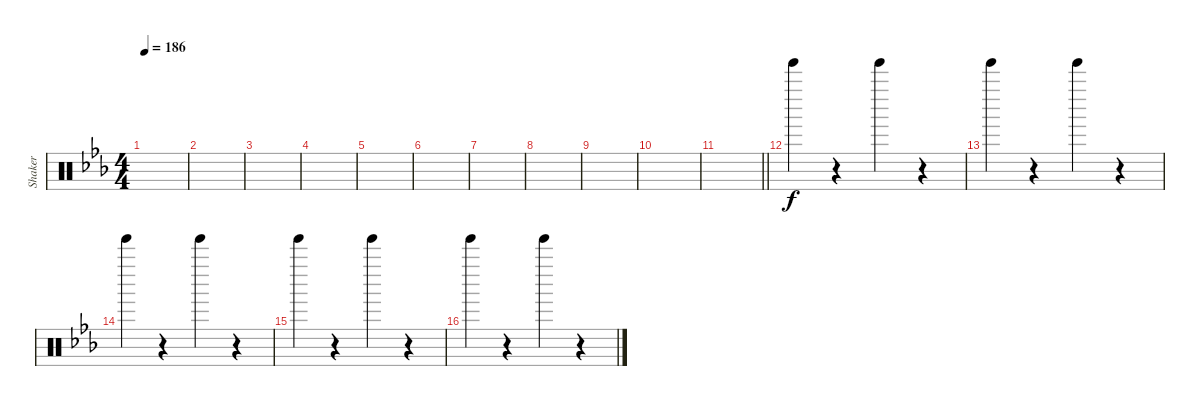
\track ("Shaker" "Shaker") {instrument percussion}
\staff {score}
\articulation defaults
\ts (4 4)
\tempo 186
\clef neutral
\ks eb
|
|
|
|
|
|
|
|
|
|
\barLineRight lightlight
|
"Tinkle Bell (hit)".4 r.4 "Tinkle Bell (hit)".4 r.4 |
"Tinkle Bell (hit)".4 r.4 "Tinkle Bell (hit)".4 r.4 |
"Tinkle Bell (hit)".4 r.4 "Tinkle Bell (hit)".4 r.4 |
"Tinkle Bell (hit)".4 r.4 "Tinkle Bell (hit)".4 r.4 |
"Tinkle Bell (hit)".4 r.4 "Tinkle Bell (hit)".4 r.4
